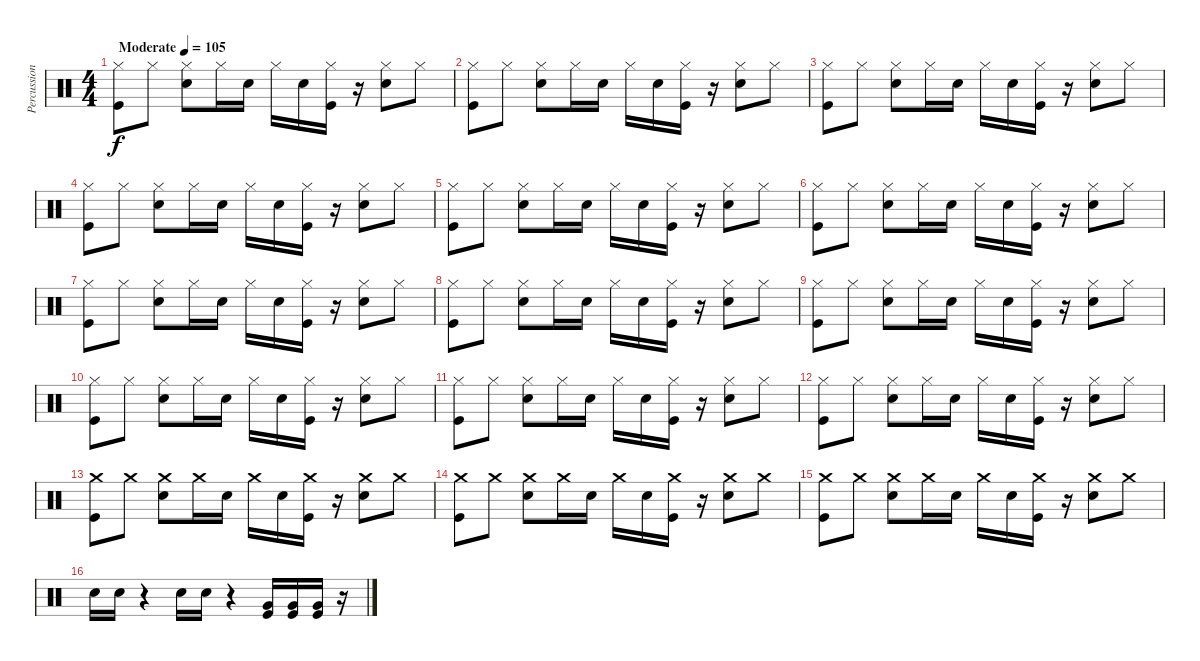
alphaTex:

\track ("Percussion" "Percussion") {instrument percussion}
\staff {score}
\articulation defaults
\ts (4 4)
\tempo (105 "Moderate")
\clef neutral
\ks c
("Hi-Hat (closed)" "Kick (hit)").8{dy f} "Hi-Hat (closed)".8 ("Hi-Hat (closed)" "Snare (hit) 2").8 "Hi-Hat (closed)".16 "Snare (hit) 2".16 "Hi-Hat (closed)".16 "Snare (hit) 2".16 ("Hi-Hat (closed)" "Kick (hit)").16 r.16 ("Hi-Hat (closed)" "Snare (hit) 2").8 "Hi-Hat (closed)".8 |
("Hi-Hat (closed)" "Kick (hit)").8 "Hi-Hat (closed)".8 ("Hi-Hat (closed)" "Snare (hit) 2").8 "Hi-Hat (closed)".16 "Snare (hit) 2".16 "Hi-Hat (closed)".16 "Snare (hit) 2".16 ("Hi-Hat (closed)" "Kick (hit)").16 r.16 ("Hi-Hat (closed)" "Snare (hit) 2").8 "Hi-Hat (closed)".8 |
("Hi-Hat (closed)" "Kick (hit)").8 "Hi-Hat (closed)".8 ("Hi-Hat (closed)" "Snare (hit) 2").8 "Hi-Hat (closed)".16 "Snare (hit) 2".16 "Hi-Hat (closed)".16 "Snare (hit) 2".16 ("Hi-Hat (closed)" "Kick (hit)").16 r.16 ("Hi-Hat (closed)" "Snare (hit) 2").8 "Hi-Hat (closed)".8 |
("Hi-Hat (closed)" "Kick (hit)").8 "Hi-Hat (closed)".8 ("Hi-Hat (closed)" "Snare (hit) 2").8 "Hi-Hat (closed)".16 "Snare (hit) 2".16 "Hi-Hat (closed)".16 "Snare (hit) 2".16 ("Hi-Hat (closed)" "Kick (hit)").16 r.16 ("Hi-Hat (closed)" "Snare (hit) 2").8 "Hi-Hat (closed)".8 |
("Hi-Hat (closed)" "Kick (hit)").8 "Hi-Hat (closed)".8 ("Hi-Hat (closed)" "Snare (hit) 2").8 "Hi-Hat (closed)".16 "Snare (hit) 2".16 "Hi-Hat (closed)".16 "Snare (hit) 2".16 ("Hi-Hat (closed)" "Kick (hit)").16 r.16 ("Hi-Hat (closed)" "Snare (hit) 2").8 "Hi-Hat (closed)".8 |
("Hi-Hat (closed)" "Kick (hit)").8 "Hi-Hat (closed)".8 ("Hi-Hat (closed)" "Snare (hit) 2").8 "Hi-Hat (closed)".16 "Snare (hit) 2".16 "Hi-Hat (closed)".16 "Snare (hit) 2".16 ("Hi-Hat (closed)" "Kick (hit)").16 r.16 ("Hi-Hat (closed)" "Snare (hit) 2").8 "Hi-Hat (closed)".8 |
("Hi-Hat (closed)" "Kick (hit)").8 "Hi-Hat (closed)".8 ("Hi-Hat (closed)" "Snare (hit) 2").8 "Hi-Hat (closed)".16 "Snare (hit) 2".16 "Hi-Hat (closed)".16 "Snare (hit) 2".16 ("Hi-Hat (closed)" "Kick (hit)").16 r.16 ("Hi-Hat (closed)" "Snare (hit) 2").8 "Hi-Hat (closed)".8 |
("Hi-Hat (closed)" "Kick (hit)").8 "Hi-Hat (closed)".8 ("Hi-Hat (closed)" "Snare (hit) 2").8 "Hi-Hat (closed)".16 "Snare (hit) 2".16 "Hi-Hat (closed)".16 "Snare (hit) 2".16 ("Hi-Hat (closed)" "Kick (hit)").16 r.16 ("Hi-Hat (closed)" "Snare (hit) 2").8 "Hi-Hat (closed)".8 |
("Hi-Hat (closed)" "Kick (hit)").8 "Hi-Hat (closed)".8 ("Hi-Hat (closed)" "Snare (hit) 2").8 "Hi-Hat (closed)".16 "Snare (hit) 2".16 "Hi-Hat (closed)".16 "Snare (hit) 2".16 ("Hi-Hat (closed)" "Kick (hit)").16 r.16 ("Hi-Hat (closed)" "Snare (hit) 2").8 "Hi-Hat (closed)".8 |
("Hi-Hat (closed)" "Kick (hit)").8 "Hi-Hat (closed)".8 ("Hi-Hat (closed)" "Snare (hit) 2").8 "Hi-Hat (closed)".16 "Snare (hit) 2".16 "Hi-Hat (closed)".16 "Snare (hit) 2".16 ("Hi-Hat (closed)" "Kick (hit)").16 r.16 ("Hi-Hat (closed)" "Snare (hit) 2").8 "Hi-Hat (closed)".8 |
("Hi-Hat (closed)" "Kick (hit)").8 "Hi-Hat (closed)".8 ("Hi-Hat (closed)" "Snare (hit) 2").8 "Hi-Hat (closed)".16 "Snare (hit) 2".16 "Hi-Hat (closed)".16 "Snare (hit) 2".16 ("Hi-Hat (closed)" "Kick (hit)").16 r.16 ("Hi-Hat (closed)" "Snare (hit) 2").8 "Hi-Hat (closed)".8 |
("Hi-Hat (closed)" "Kick (hit)").8 "Hi-Hat (closed)".8 ("Hi-Hat (closed)" "Snare (hit) 2").8 "Hi-Hat (closed)".16 "Snare (hit) 2".16 "Hi-Hat (closed)".16 "Snare (hit) 2".16 ("Hi-Hat (closed)" "Kick (hit)").16 r.16 ("Hi-Hat (closed)" "Snare (hit) 2").8 "Hi-Hat (closed)".8 |
("Crash medium (hit)" "Kick (hit)").8 "Crash medium (hit)".8 ("Crash medium (hit)" "Snare (hit) 2").8 "Crash medium (hit)".16 "Snare (hit) 2".16 "Crash medium (hit)".16 "Snare (hit) 2".16 ("Crash medium (hit)" "Kick (hit)").16 r.16 ("Crash medium (hit)" "Snare (hit) 2").8 "Crash medium (hit)".8 |
("Crash medium (hit)" "Kick (hit)").8 "Crash medium (hit)".8 ("Crash medium (hit)" "Snare (hit) 2").8 "Crash medium (hit)".16 "Snare (hit) 2".16 "Crash medium (hit)".16 "Snare (hit) 2".16 ("Crash medium (hit)" "Kick (hit)").16 r.16 ("Crash medium (hit)" "Snare (hit) 2").8 "Crash medium (hit)".8 |
("Crash medium (hit)" "Kick (hit)").8 "Crash medium (hit)".8 ("Crash medium (hit)" "Snare (hit) 2").8 "Crash medium (hit)".16 "Snare (hit) 2".16 "Crash medium (hit)".16 "Snare (hit) 2".16 ("Crash medium (hit)" "Kick (hit)").16 r.16 ("Crash medium (hit)" "Snare (hit) 2").8 "Crash medium (hit)".8 |
"Electric Snare (hit)".16 "Electric Snare (hit)".16 r.4 "Electric Snare (hit)".16 "Electric Snare (hit)".16 r.4 ("Very Low Tom (hit)" "Kick (hit)").16 ("Very Low Tom (hit)" "Kick (hit)").16 ("Very Low Tom (hit)" "Kick (hit)").16 r.16
